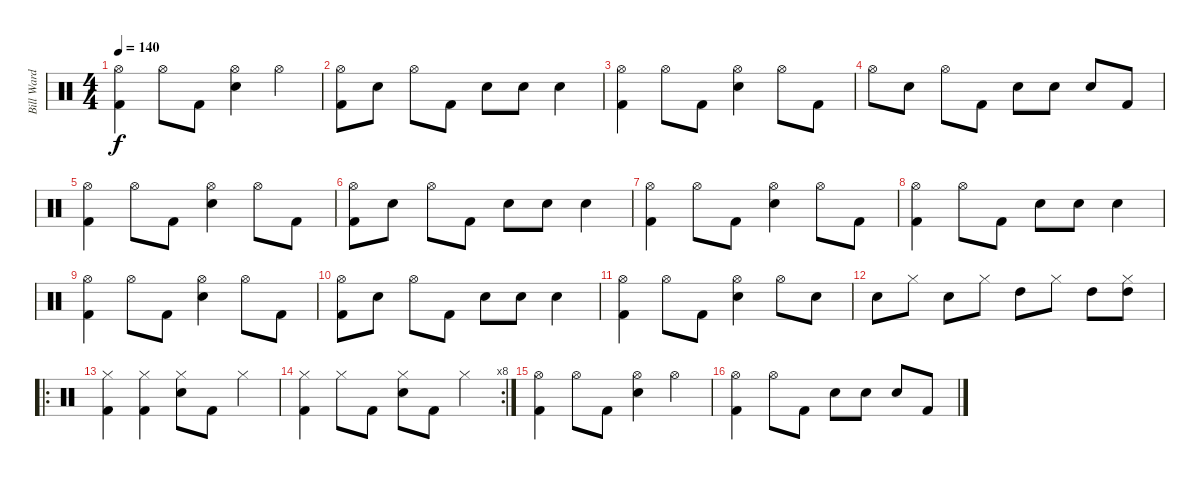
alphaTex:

\track ("Bill Ward" "Bill Ward") {instrument percussion}
\staff {score}
\articulation defaults
\ts (4 4)
\tempo 140
\clef neutral
\ks c
("Hi-Hat (open)" "Kick (hit) 2").4{dy f} "Hi-Hat (open)".8 "Kick (hit) 2".8 ("Hi-Hat (open)" "Snare (hit) 2").4 "Hi-Hat (open)".4 |
("Hi-Hat (open)" "Kick (hit) 2").8 "Snare (hit) 2".8 "Hi-Hat (open)".8 "Kick (hit) 2".8 "Snare (hit) 2".8 "Snare (hit) 2".8 "Snare (hit) 2".4 |
("Hi-Hat (open)" "Kick (hit) 2").4 "Hi-Hat (open)".8 "Kick (hit) 2".8 ("Hi-Hat (open)" "Snare (hit) 2").4 "Hi-Hat (open)".8 "Kick (hit) 2".8 |
"Hi-Hat (open)".8 "Snare (hit) 2".8 "Hi-Hat (open)".8 "Kick (hit) 2".8 "Snare (hit) 2".8 "Snare (hit) 2".8 "Snare (hit) 2".8 "Kick (hit) 2".8 |
("Hi-Hat (open)" "Kick (hit) 2").4 "Hi-Hat (open)".8 "Kick (hit) 2".8 ("Hi-Hat (open)" "Snare (hit) 2").4 "Hi-Hat (open)".8 "Kick (hit) 2".8 |
("Hi-Hat (open)" "Kick (hit) 2").8 "Snare (hit) 2".8 "Hi-Hat (open)".8 "Kick (hit) 2".8 "Snare (hit) 2".8 "Snare (hit) 2".8 "Snare (hit) 2".4 |
("Hi-Hat (open)" "Kick (hit) 2").4 "Hi-Hat (open)".8 "Kick (hit) 2".8 ("Hi-Hat (open)" "Snare (hit) 2").4 "Hi-Hat (open)".8 "Kick (hit) 2".8 |
("Hi-Hat (open)" "Kick (hit) 2").4 "Hi-Hat (open)".8 "Kick (hit) 2".8 "Snare (hit) 2".8 "Snare (hit) 2".8 "Snare (hit) 2".4 |
("Hi-Hat (open)" "Kick (hit) 2").4 "Hi-Hat (open)".8 "Kick (hit) 2".8 ("Hi-Hat (open)" "Snare (hit) 2").4 "Hi-Hat (open)".8 "Kick (hit) 2".8 |
("Hi-Hat (open)" "Kick (hit) 2").8 "Snare (hit) 2".8 "Hi-Hat (open)".8 "Kick (hit) 2".8 "Snare (hit) 2".8 "Snare (hit) 2".8 "Snare (hit) 2".4 |
("Hi-Hat (open)" "Kick (hit) 2").4 "Hi-Hat (open)".8 "Kick (hit) 2".8 ("Hi-Hat (open)" "Snare (hit) 2").4 "Hi-Hat (open)".8 "Snare (hit) 2".8 |
"Snare (hit) 2".8 "Hi-Hat (closed)".8 "Snare (hit) 2".8 "Hi-Hat (closed)".8 "High Tom (hit)".8 "Hi-Hat (closed)".8 "High Tom (hit)".8 ("Hi-Hat (closed)" "High Tom (hit)").8 |
\ro
("Hi-Hat (closed)" "Kick (hit) 2").4 ("Hi-Hat (closed)" "Kick (hit) 2").4 ("Hi-Hat (closed)" "Snare (hit) 2").8 "Kick (hit) 2".8 "Hi-Hat (closed)".4 |
\rc 8
("Hi-Hat (closed)" "Kick (hit) 2").4 "Hi-Hat (closed)".8 "Kick (hit) 2".8 ("Hi-Hat (closed)" "Snare (hit) 2").8 "Kick (hit) 2".8 "Hi-Hat (closed)".4 |
("Hi-Hat (open)" "Kick (hit) 2").4 "Hi-Hat (open)".8 "Kick (hit) 2".8 ("Hi-Hat (open)" "Snare (hit) 2").4 "Hi-Hat (open)".4 |
("Hi-Hat (open)" "Kick (hit) 2").4 "Hi-Hat (open)".8 "Kick (hit) 2".8 "Snare (hit) 2".8 "Snare (hit) 2".8 "Snare (hit) 2".8 "Kick (hit) 2".8
